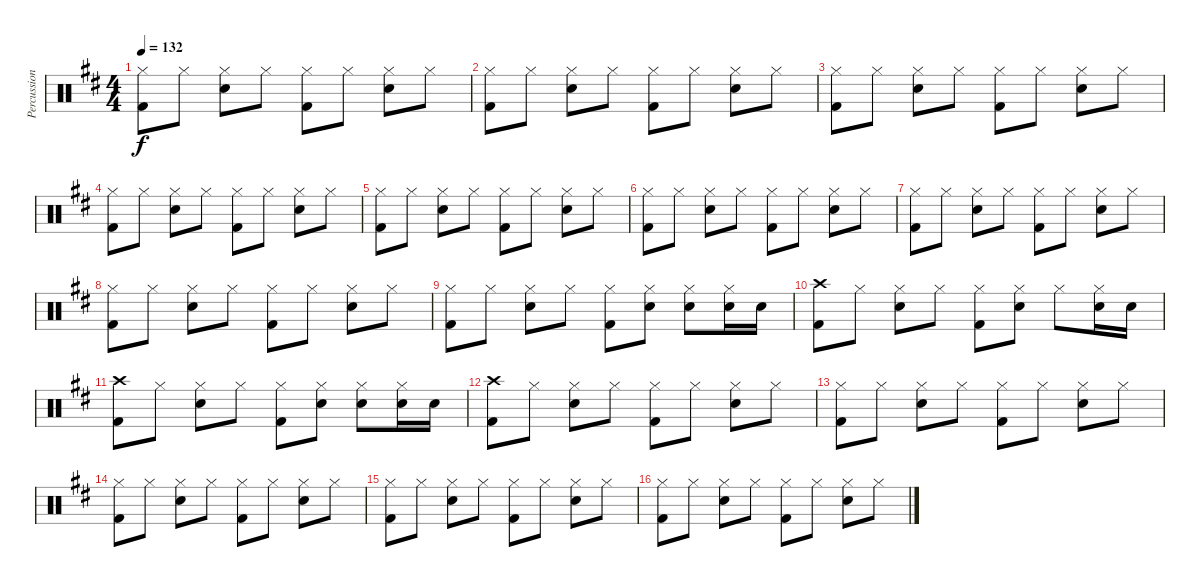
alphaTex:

\track ("Percussion" "Percussion") {instrument percussion}
\staff {score}
\articulation defaults
\ts (4 4)
\tempo 132
\clef neutral
\ks d
("Hi-Hat (closed)" "Kick (hit) 2").8{dy f} "Hi-Hat (closed)".8 ("Hi-Hat (closed)" "Electric Snare (hit)").8 "Hi-Hat (closed)".8 ("Hi-Hat (closed)" "Kick (hit) 2").8 "Hi-Hat (closed)".8 ("Hi-Hat (closed)" "Electric Snare (hit)").8 "Hi-Hat (closed)".8 |
("Hi-Hat (closed)" "Kick (hit) 2").8 "Hi-Hat (closed)".8 ("Hi-Hat (closed)" "Electric Snare (hit)").8 "Hi-Hat (closed)".8 ("Hi-Hat (closed)" "Kick (hit) 2").8 "Hi-Hat (closed)".8 ("Hi-Hat (closed)" "Electric Snare (hit)").8 "Hi-Hat (closed)".8 |
("Hi-Hat (closed)" "Kick (hit) 2").8 "Hi-Hat (closed)".8 ("Hi-Hat (closed)" "Electric Snare (hit)").8 "Hi-Hat (closed)".8 ("Hi-Hat (closed)" "Kick (hit) 2").8 "Hi-Hat (closed)".8 ("Hi-Hat (closed)" "Electric Snare (hit)").8 "Hi-Hat (closed)".8 |
("Hi-Hat (closed)" "Kick (hit) 2").8 "Hi-Hat (closed)".8 ("Hi-Hat (closed)" "Electric Snare (hit)").8 "Hi-Hat (closed)".8 ("Hi-Hat (closed)" "Kick (hit) 2").8 "Hi-Hat (closed)".8 ("Hi-Hat (closed)" "Electric Snare (hit)").8 "Hi-Hat (closed)".8 |
("Hi-Hat (closed)" "Kick (hit) 2").8 "Hi-Hat (closed)".8 ("Hi-Hat (closed)" "Electric Snare (hit)").8 "Hi-Hat (closed)".8 ("Hi-Hat (closed)" "Kick (hit) 2").8 "Hi-Hat (closed)".8 ("Hi-Hat (closed)" "Electric Snare (hit)").8 "Hi-Hat (closed)".8 |
("Hi-Hat (closed)" "Kick (hit) 2").8 "Hi-Hat (closed)".8 ("Hi-Hat (closed)" "Electric Snare (hit)").8 "Hi-Hat (closed)".8 ("Hi-Hat (closed)" "Kick (hit) 2").8 "Hi-Hat (closed)".8 ("Hi-Hat (closed)" "Electric Snare (hit)").8 "Hi-Hat (closed)".8 |
("Hi-Hat (closed)" "Kick (hit) 2").8 "Hi-Hat (closed)".8 ("Hi-Hat (closed)" "Electric Snare (hit)").8 "Hi-Hat (closed)".8 ("Hi-Hat (closed)" "Kick (hit) 2").8 "Hi-Hat (closed)".8 ("Hi-Hat (closed)" "Electric Snare (hit)").8 "Hi-Hat (closed)".8 |
("Hi-Hat (closed)" "Kick (hit) 2").8 "Hi-Hat (closed)".8 ("Hi-Hat (closed)" "Electric Snare (hit)").8 "Hi-Hat (closed)".8 ("Hi-Hat (closed)" "Kick (hit) 2").8 "Hi-Hat (closed)".8 ("Hi-Hat (closed)" "Electric Snare (hit)").8 "Hi-Hat (closed)".8 |
("Hi-Hat (closed)" "Kick (hit) 2").8 "Hi-Hat (closed)".8 ("Hi-Hat (closed)" "Electric Snare (hit)").8 "Hi-Hat (closed)".8 ("Hi-Hat (closed)" "Kick (hit) 2").8 ("Hi-Hat (closed)" "Electric Snare (hit)").8 ("Hi-Hat (closed)" "Electric Snare (hit)").8 ("Hi-Hat (closed)" "Electric Snare (hit)").16 "Electric Snare (hit)".16 |
("Crash high (hit)" "Kick (hit) 2").8 "Hi-Hat (closed)".8 ("Hi-Hat (closed)" "Electric Snare (hit)").8 "Hi-Hat (closed)".8 ("Hi-Hat (closed)" "Kick (hit) 2").8 ("Hi-Hat (closed)" "Electric Snare (hit)").8 "Hi-Hat (closed)".8 ("Hi-Hat (closed)" "Electric Snare (hit)").16 "Electric Snare (hit)".16 |
("Crash high (hit)" "Kick (hit) 2").8 "Hi-Hat (closed)".8 ("Hi-Hat (closed)" "Electric Snare (hit)").8 "Hi-Hat (closed)".8 ("Hi-Hat (closed)" "Kick (hit) 2").8 ("Hi-Hat (closed)" "Electric Snare (hit)").8 ("Hi-Hat (closed)" "Electric Snare (hit)").8 ("Hi-Hat (closed)" "Electric Snare (hit)").16 "Electric Snare (hit)".16 |
("Crash high (hit)" "Kick (hit) 2").8 "Hi-Hat (closed)".8 ("Hi-Hat (closed)" "Electric Snare (hit)").8 "Hi-Hat (closed)".8 ("Hi-Hat (closed)" "Kick (hit) 2").8 "Hi-Hat (closed)".8 ("Hi-Hat (closed)" "Electric Snare (hit)").8 "Hi-Hat (closed)".8 |
("Hi-Hat (closed)" "Kick (hit) 2").8 "Hi-Hat (closed)".8 ("Hi-Hat (closed)" "Electric Snare (hit)").8 "Hi-Hat (closed)".8 ("Hi-Hat (closed)" "Kick (hit) 2").8 "Hi-Hat (closed)".8 ("Hi-Hat (closed)" "Electric Snare (hit)").8 "Hi-Hat (closed)".8 |
("Hi-Hat (closed)" "Kick (hit) 2").8 "Hi-Hat (closed)".8 ("Hi-Hat (closed)" "Electric Snare (hit)").8 "Hi-Hat (closed)".8 ("Hi-Hat (closed)" "Kick (hit) 2").8 "Hi-Hat (closed)".8 ("Hi-Hat (closed)" "Electric Snare (hit)").8 "Hi-Hat (closed)".8 |
("Hi-Hat (closed)" "Kick (hit) 2").8 "Hi-Hat (closed)".8 ("Hi-Hat (closed)" "Electric Snare (hit)").8 "Hi-Hat (closed)".8 ("Hi-Hat (closed)" "Kick (hit) 2").8 "Hi-Hat (closed)".8 ("Hi-Hat (closed)" "Electric Snare (hit)").8 "Hi-Hat (closed)".8 |
("Hi-Hat (closed)" "Kick (hit) 2").8 "Hi-Hat (closed)".8 ("Hi-Hat (closed)" "Electric Snare (hit)").8 "Hi-Hat (closed)".8 ("Hi-Hat (closed)" "Kick (hit) 2").8 "Hi-Hat (closed)".8 ("Hi-Hat (closed)" "Electric Snare (hit)").8 "Hi-Hat (closed)".8
